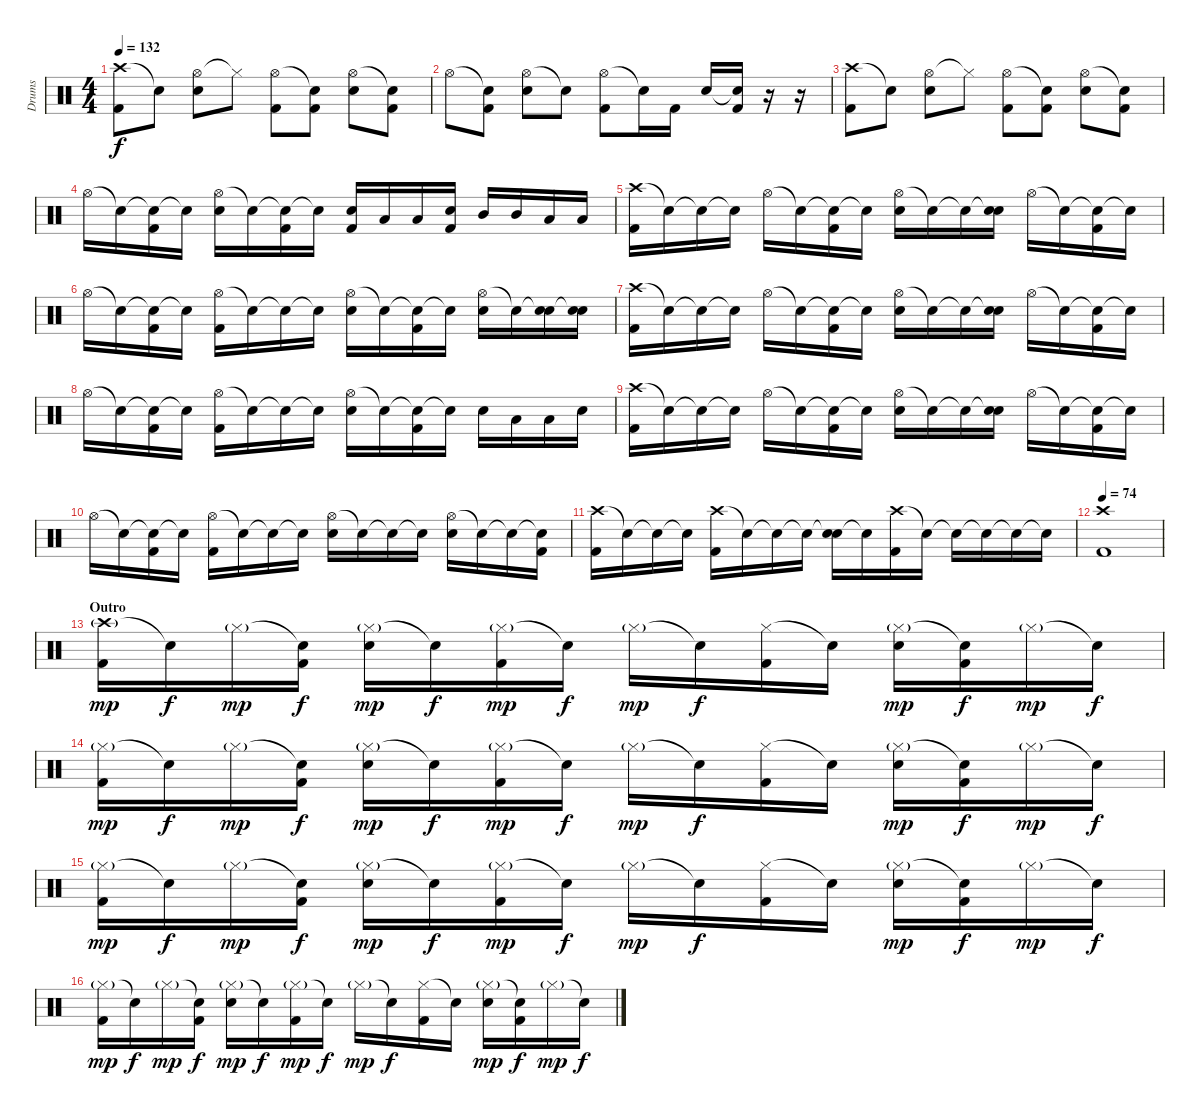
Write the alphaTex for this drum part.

\track ("Drums" "Drums") {instrument percussion}
\staff {score}
\articulation defaults
\ts (4 4)
\tempo 132
\clef neutral
\ks c
("Crash high (hit)" "Kick (hit) 2").8{dy f} "Snare (hit)"{t}.8 ("Hi-Hat (open)" "Electric Snare (hit)").8 "Hi-Hat (closed)"{t}.8 ("Hi-Hat (open)" "Kick (hit) 2").8 ("Snare (hit)"{t} "Kick (hit) 2").8 ("Hi-Hat (open)" "Electric Snare (hit)").8 ("Snare (hit)"{t} "Kick (hit) 2").8 |
"Hi-Hat (open)".8 ("Snare (hit)"{t} "Kick (hit) 2").8 ("Hi-Hat (open)" "Electric Snare (hit)").8 "Snare (hit)"{t}.8 ("Hi-Hat (open)" "Kick (hit) 2").8 "Snare (hit)"{t}.16 "Kick (hit) 2".16 "Electric Snare (hit)".16 ("Snare (hit)"{t} "Kick (hit) 2").16 r.16 r.16 |
("Crash high (hit)" "Kick (hit) 2").8 "Snare (hit)"{t}.8 ("Hi-Hat (open)" "Electric Snare (hit)").8 "Hi-Hat (closed)"{t}.8 ("Hi-Hat (open)" "Kick (hit) 2").8 ("Snare (hit)"{t} "Kick (hit) 2").8 ("Hi-Hat (open)" "Electric Snare (hit)").8 ("Snare (hit)"{t} "Kick (hit) 2").8 |
"Hi-Hat (open)".16 "Snare (hit)"{t}.16 ("Snare (hit)"{t} "Kick (hit) 2").16 "Snare (hit)"{t}.16 ("Hi-Hat (open)" "Electric Snare (hit)").16 "Snare (hit)"{t}.16 ("Snare (hit)"{t} "Kick (hit) 2").16 "Snare (hit)"{t}.16 ("Electric Snare (hit)" "Kick (hit) 2").16 "Low Tom (hit)".16 "Low Tom (hit)".16 ("Electric Snare (hit)" "Kick (hit) 2").16 "Mid Tom (hit)".16 "Mid Tom (hit)".16 "Low Floor Tom (hit)".16 "Low Floor Tom (hit)".16 |
("Crash high (hit)" "Kick (hit) 2").16 "Snare (hit)"{t}.16 "Snare (hit)"{t}.16 "Snare (hit)"{t}.16 "Hi-Hat (open)".16 "Snare (hit)"{t}.16 ("Snare (hit)"{t} "Kick (hit) 2").16 "Snare (hit)"{t}.16 ("Hi-Hat (open)" "Electric Snare (hit)").16 "Snare (hit)"{t}.16 "Snare (hit)"{t}.16 ("Snare (hit)"{t} "Electric Snare (hit)").16 "Hi-Hat (open)".16 "Snare (hit)"{t}.16 ("Snare (hit)"{t} "Kick (hit) 2").16 "Snare (hit)"{t}.16 |
"Hi-Hat (open)".16 "Snare (hit)"{t}.16 ("Snare (hit)"{t} "Kick (hit) 2").16 "Snare (hit)"{t}.16 ("Hi-Hat (open)" "Kick (hit) 2").16 "Snare (hit)"{t}.16 "Snare (hit)"{t}.16 "Snare (hit)"{t}.16 ("Hi-Hat (open)" "Electric Snare (hit)").16 "Snare (hit)"{t}.16 ("Snare (hit)"{t} "Kick (hit) 2").16 "Snare (hit)"{t}.16 ("Hi-Hat (open)" "Electric Snare (hit)").16 "Snare (hit)"{t}.16 ("Snare (hit)"{t} "Electric Snare (hit)").16 ("Snare (hit)"{t} "Electric Snare (hit)").16 |
("Crash high (hit)" "Kick (hit) 2").16 "Snare (hit)"{t}.16 "Snare (hit)"{t}.16 "Snare (hit)"{t}.16 "Hi-Hat (open)".16 "Snare (hit)"{t}.16 ("Snare (hit)"{t} "Kick (hit) 2").16 "Snare (hit)"{t}.16 ("Hi-Hat (open)" "Electric Snare (hit)").16 "Snare (hit)"{t}.16 "Snare (hit)"{t}.16 ("Snare (hit)"{t} "Electric Snare (hit)").16 "Hi-Hat (open)".16 "Snare (hit)"{t}.16 ("Snare (hit)"{t} "Kick (hit) 2").16 "Snare (hit)"{t}.16 |
"Hi-Hat (open)".16 "Snare (hit)"{t}.16 ("Snare (hit)"{t} "Kick (hit) 2").16 "Snare (hit)"{t}.16 ("Hi-Hat (open)" "Kick (hit) 2").16 "Snare (hit)"{t}.16 "Snare (hit)"{t}.16 "Snare (hit)"{t}.16 ("Hi-Hat (open)" "Electric Snare (hit)").16 "Snare (hit)"{t}.16 ("Snare (hit)"{t} "Kick (hit) 2").16 "Snare (hit)"{t}.16 "Electric Snare (hit)".16 "Low Tom (hit)".16 "Low Tom (hit)".16 "Electric Snare (hit)".16 |
("Crash high (hit)" "Kick (hit) 2").16 "Snare (hit)"{t}.16 "Snare (hit)"{t}.16 "Snare (hit)"{t}.16 "Hi-Hat (open)".16 "Snare (hit)"{t}.16 ("Snare (hit)"{t} "Kick (hit) 2").16 "Snare (hit)"{t}.16 ("Hi-Hat (open)" "Electric Snare (hit)").16 "Snare (hit)"{t}.16 "Snare (hit)"{t}.16 ("Snare (hit)"{t} "Electric Snare (hit)").16 "Hi-Hat (open)".16 "Snare (hit)"{t}.16 ("Snare (hit)"{t} "Kick (hit) 2").16 "Snare (hit)"{t}.16 |
"Hi-Hat (open)".16 "Snare (hit)"{t}.16 ("Snare (hit)"{t} "Kick (hit) 2").16 "Snare (hit)"{t}.16 ("Hi-Hat (open)" "Kick (hit) 2").16 "Snare (hit)"{t}.16 "Snare (hit)"{t}.16 "Snare (hit)"{t}.16 ("Hi-Hat (open)" "Electric Snare (hit)").16 "Snare (hit)"{t}.16 "Snare (hit)"{t}.16 "Snare (hit)"{t}.16 ("Hi-Hat (open)" "Electric Snare (hit)").16 "Snare (hit)"{t}.16 "Snare (hit)"{t}.16 ("Snare (hit)"{t} "Kick (hit) 2").16 |
("Crash high (hit)" "Kick (hit) 2").16 "Snare (hit)"{t}.16 "Snare (hit)"{t}.16 "Snare (hit)"{t}.16 ("Crash high (hit)" "Kick (hit) 2").16 "Snare (hit)"{t}.16 "Snare (hit)"{t}.16 "Snare (hit)"{t}.16 ("Snare (hit)"{t} "Electric Snare (hit)").16 "Snare (hit)"{t}.16 ("Crash high (hit)" "Kick (hit) 2").16 "Snare (hit)"{t}.16 "Snare (hit)"{t}.16 "Snare (hit)"{t}.16 "Snare (hit)"{t}.16 "Snare (hit)"{t}.16 |
\tempo 74
("Crash high (hit)" "Kick (hit) 2").1 |
\section ("" "Outro")
("Crash high (hit)"{g} "Kick (hit) 2").16{dy mp} "Snare (hit)"{t}.16{dy f} "Hi-Hat (closed)"{g}.16{dy mp} ("Snare (hit)"{t} "Kick (hit) 2").16{dy f} ("Hi-Hat (closed)"{g} "Electric Snare (hit)").16{dy mp} "Snare (hit)"{t}.16{dy f} ("Hi-Hat (closed)"{g} "Kick (hit) 2").16{dy mp} "Snare (hit)"{t}.16{dy f} "Hi-Hat (closed)"{g}.16{dy mp} "Snare (hit)"{t}.16{dy f} ("Hi-Hat (closed)" "Kick (hit) 2").16 "Snare (hit)"{t}.16 ("Hi-Hat (closed)"{g} "Electric Snare (hit)").16{dy mp} ("Snare (hit)"{t} "Kick (hit) 2").16{dy f} "Hi-Hat (closed)"{g}.16{dy mp} "Snare (hit)"{t}.16{dy f} |
("Hi-Hat (closed)"{g} "Kick (hit) 2").16{dy mp} "Snare (hit)"{t}.16{dy f} "Hi-Hat (closed)"{g}.16{dy mp} ("Snare (hit)"{t} "Kick (hit) 2").16{dy f} ("Hi-Hat (closed)"{g} "Electric Snare (hit)").16{dy mp} "Snare (hit)"{t}.16{dy f} ("Hi-Hat (closed)"{g} "Kick (hit) 2").16{dy mp} "Snare (hit)"{t}.16{dy f} "Hi-Hat (closed)"{g}.16{dy mp} "Snare (hit)"{t}.16{dy f} ("Hi-Hat (closed)" "Kick (hit) 2").16 "Snare (hit)"{t}.16 ("Hi-Hat (closed)"{g} "Electric Snare (hit)").16{dy mp} ("Snare (hit)"{t} "Kick (hit) 2").16{dy f} "Hi-Hat (closed)"{g}.16{dy mp} "Snare (hit)"{t}.16{dy f} |
("Hi-Hat (closed)"{g} "Kick (hit) 2").16{dy mp} "Snare (hit)"{t}.16{dy f} "Hi-Hat (closed)"{g}.16{dy mp} ("Snare (hit)"{t} "Kick (hit) 2").16{dy f} ("Hi-Hat (closed)"{g} "Electric Snare (hit)").16{dy mp} "Snare (hit)"{t}.16{dy f} ("Hi-Hat (closed)"{g} "Kick (hit) 2").16{dy mp} "Snare (hit)"{t}.16{dy f} "Hi-Hat (closed)"{g}.16{dy mp} "Snare (hit)"{t}.16{dy f} ("Hi-Hat (closed)" "Kick (hit) 2").16 "Snare (hit)"{t}.16 ("Hi-Hat (closed)"{g} "Electric Snare (hit)").16{dy mp} ("Snare (hit)"{t} "Kick (hit) 2").16{dy f} "Hi-Hat (closed)"{g}.16{dy mp} "Snare (hit)"{t}.16{dy f} |
("Hi-Hat (closed)"{g} "Kick (hit) 2").16{dy mp} "Snare (hit)"{t}.16{dy f} "Hi-Hat (closed)"{g}.16{dy mp} ("Snare (hit)"{t} "Kick (hit) 2").16{dy f} ("Hi-Hat (closed)"{g} "Electric Snare (hit)").16{dy mp} "Snare (hit)"{t}.16{dy f} ("Hi-Hat (closed)"{g} "Kick (hit) 2").16{dy mp} "Snare (hit)"{t}.16{dy f} "Hi-Hat (closed)"{g}.16{dy mp} "Snare (hit)"{t}.16{dy f} ("Hi-Hat (closed)" "Kick (hit) 2").16 "Snare (hit)"{t}.16 ("Hi-Hat (closed)"{g} "Electric Snare (hit)").16{dy mp} ("Snare (hit)"{t} "Kick (hit) 2").16{dy f} "Hi-Hat (closed)"{g}.16{dy mp} "Snare (hit)"{t}.16{dy f}
